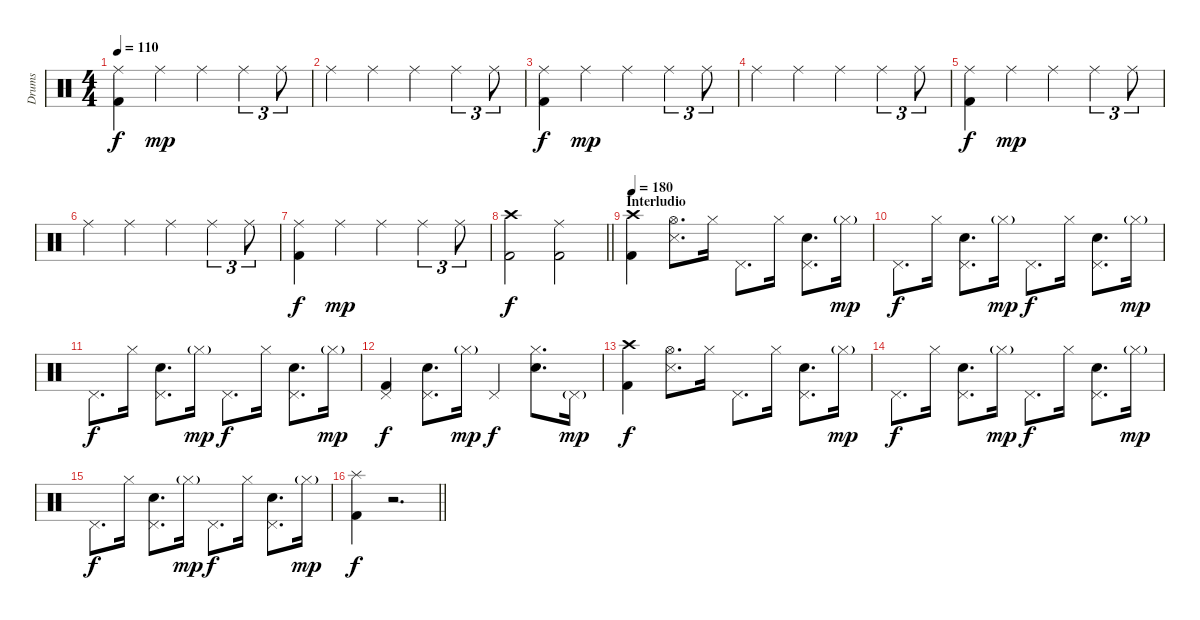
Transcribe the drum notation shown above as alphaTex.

\track ("Drums" "Drums") {instrument percussion}
\staff {score}
\articulation defaults
\ts (4 4)
\tempo 110
\clef neutral
\ks c
("Ride (middle)" "Kick (hit) 2").4{dy f} "Ride (middle)".4{dy mp} "Ride (middle)".4 "Ride (middle)".4{tu (3 2)} "Ride (middle)".8{tu (3 2)} |
"Ride (middle)".4 "Ride (middle)".4 "Ride (middle)".4 "Ride (middle)".4{tu (3 2)} "Ride (middle)".8{tu (3 2)} |
("Ride (middle)" "Kick (hit) 2").4{dy f} "Ride (middle)".4{dy mp} "Ride (middle)".4 "Ride (middle)".4{tu (3 2)} "Ride (middle)".8{tu (3 2)} |
"Ride (middle)".4 "Ride (middle)".4 "Ride (middle)".4 "Ride (middle)".4{tu (3 2)} "Ride (middle)".8{tu (3 2)} |
("Ride (middle)" "Kick (hit) 2").4{dy f} "Ride (middle)".4{dy mp} "Ride (middle)".4 "Ride (middle)".4{tu (3 2)} "Ride (middle)".8{tu (3 2)} |
"Ride (middle)".4 "Ride (middle)".4 "Ride (middle)".4 "Ride (middle)".4{tu (3 2)} "Ride (middle)".8{tu (3 2)} |
("Ride (middle)" "Kick (hit) 2").4{dy f} "Ride (middle)".4{dy mp} "Ride (middle)".4 "Ride (middle)".4{tu (3 2)} "Ride (middle)".8{tu (3 2)} |
\barLineRight lightlight
("Crash high (hit)" "Kick (hit) 2").2{dy f} ("Ride (middle)" "Kick (hit) 2").2 |
\section ("" "Interludio")
\tempo 180
("Crash high (hit)" "Kick (hit) 2").4 ("Hi-Hat (open)" "Snare (side stick) 3").8{d} "Hi-Hat (closed)".16 "Pedal Hi-Hat (hit)".8{d} "Hi-Hat (closed)".16 ("Pedal Hi-Hat (hit)" "Snare (hit) 2").8{d} "Hi-Hat (closed)"{g}.16{dy mp} |
"Pedal Hi-Hat (hit)".8{d dy f} "Hi-Hat (closed)".16 ("Pedal Hi-Hat (hit)" "Snare (hit) 2").8{d} "Hi-Hat (closed)"{g}.16{dy mp} "Pedal Hi-Hat (hit)".8{d dy f} "Hi-Hat (closed)".16 ("Pedal Hi-Hat (hit)" "Snare (hit) 2").8{d} "Hi-Hat (closed)"{g}.16{dy mp} |
"Pedal Hi-Hat (hit)".8{d dy f} "Hi-Hat (closed)".16 ("Pedal Hi-Hat (hit)" "Snare (hit) 2").8{d} "Hi-Hat (closed)"{g}.16{dy mp} "Pedal Hi-Hat (hit)".8{d dy f} "Hi-Hat (closed)".16 ("Pedal Hi-Hat (hit)" "Snare (hit) 2").8{d} "Hi-Hat (closed)"{g}.16{dy mp} |
("Pedal Hi-Hat (hit)" "Kick (hit) 2").4{dy f} ("Pedal Hi-Hat (hit)" "Snare (hit) 2").8{d} "Hi-Hat (closed)"{g}.16{dy mp} "Pedal Hi-Hat (hit)".4{dy f} ("Hi-Hat (closed)" "Snare (hit) 2").8{d} "Pedal Hi-Hat (hit)"{g}.16{dy mp} |
("Crash high (hit)" "Kick (hit) 2").4{dy f} ("Hi-Hat (open)" "Snare (side stick) 3").8{d} "Hi-Hat (closed)".16 "Pedal Hi-Hat (hit)".8{d} "Hi-Hat (closed)".16 ("Pedal Hi-Hat (hit)" "Snare (hit) 2").8{d} "Hi-Hat (closed)"{g}.16{dy mp} |
"Pedal Hi-Hat (hit)".8{d dy f} "Hi-Hat (closed)".16 ("Pedal Hi-Hat (hit)" "Snare (hit) 2").8{d} "Hi-Hat (closed)"{g}.16{dy mp} "Pedal Hi-Hat (hit)".8{d dy f} "Hi-Hat (closed)".16 ("Pedal Hi-Hat (hit)" "Snare (hit) 2").8{d} "Hi-Hat (closed)"{g}.16{dy mp} |
"Pedal Hi-Hat (hit)".8{d dy f} "Hi-Hat (closed)".16 ("Pedal Hi-Hat (hit)" "Snare (hit) 2").8{d} "Hi-Hat (closed)"{g}.16{dy mp} "Pedal Hi-Hat (hit)".8{d dy f} "Hi-Hat (closed)".16 ("Pedal Hi-Hat (hit)" "Snare (hit) 2").8{d} "Hi-Hat (closed)"{g}.16{dy mp} |
\barLineRight lightlight
("Splash (hit)" "Kick (hit) 2").4{dy f} r.2{d}
